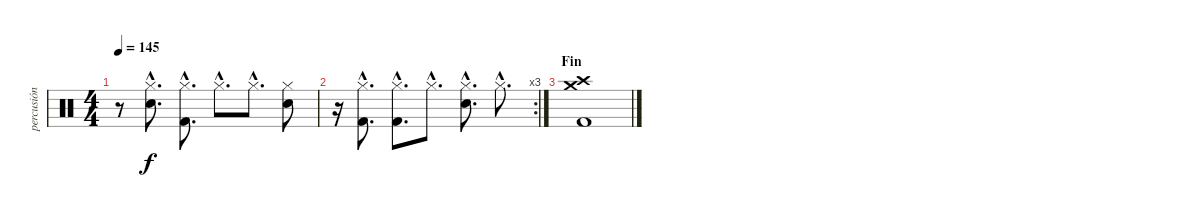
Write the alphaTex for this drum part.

\track ("percusión" "percusión") {instrument percussion}
\staff {score}
\articulation defaults
\ts (4 4)
\tempo 145
\clef neutral
\ks c
r.8{dy f} ("Hi-Hat (closed)"{hac} "Electric Snare (hit)"{hac}).8{d} ("Kick (hit) 2"{hac} "Hi-Hat (closed)"{hac}).8{d} "Hi-Hat (closed)"{hac}.8{d} "Hi-Hat (closed)"{hac}.8{d} ("Hi-Hat (closed)" "Electric Snare (hit)").8 |
\rc 3
r.16 ("Kick (hit) 2"{hac} "Hi-Hat (closed)"{hac}).8{d} ("Kick (hit) 2"{hac} "Hi-Hat (closed)"{hac}).8{d} "Hi-Hat (closed)"{hac}.8{d} ("Hi-Hat (closed)"{hac} "Electric Snare (hit)"{hac}).8{d} "Hi-Hat (closed)"{hac}.8{d} |
\section ("" "Fin")
("Kick (hit) 2" "Crash high (hit)" "Crash medium (hit)").1
